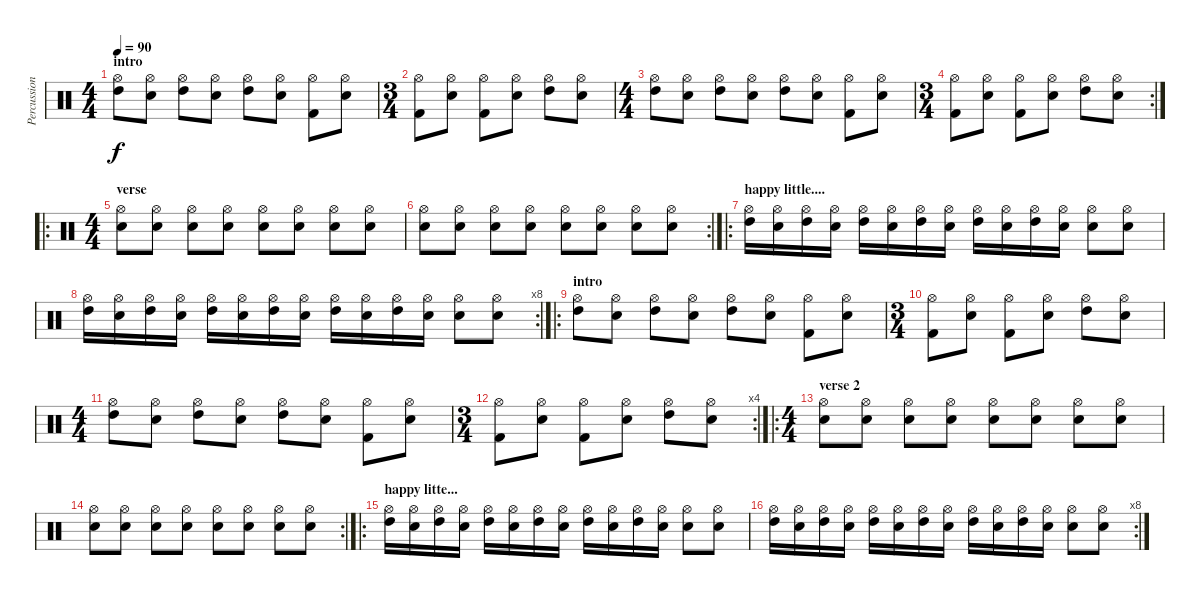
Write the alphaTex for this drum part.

\track ("Percussioni" "Percussion") {instrument percussion}
\staff {score}
\articulation defaults
\ts (4 4)
\section ("" "intro")
\tempo 90
\clef neutral
\ks c
("Hi-Hat (open)" "High Tom (hit)").8{dy f} ("Hi-Hat (open)" "Electric Snare (hit)").8 ("Hi-Hat (open)" "High Tom (hit)").8 ("Hi-Hat (open)" "Electric Snare (hit)").8 ("Hi-Hat (open)" "High Tom (hit)").8 ("Hi-Hat (open)" "Electric Snare (hit)").8 ("Hi-Hat (open)" "Kick (hit) 2").8 ("Hi-Hat (open)" "Electric Snare (hit)").8 |
\ts (3 4)
("Hi-Hat (open)" "Kick (hit) 2").8 ("Hi-Hat (open)" "Electric Snare (hit)").8 ("Hi-Hat (open)" "Kick (hit) 2").8 ("Hi-Hat (open)" "Electric Snare (hit)").8 ("Hi-Hat (open)" "High Tom (hit)").8 ("Hi-Hat (open)" "Electric Snare (hit)").8 |
\ts (4 4)
("Hi-Hat (open)" "High Tom (hit)").8 ("Hi-Hat (open)" "Electric Snare (hit)").8 ("Hi-Hat (open)" "High Tom (hit)").8 ("Hi-Hat (open)" "Electric Snare (hit)").8 ("Hi-Hat (open)" "High Tom (hit)").8 ("Hi-Hat (open)" "Electric Snare (hit)").8 ("Hi-Hat (open)" "Kick (hit) 2").8 ("Hi-Hat (open)" "Electric Snare (hit)").8 |
\rc 2
\ts (3 4)
("Hi-Hat (open)" "Kick (hit) 2").8 ("Hi-Hat (open)" "Electric Snare (hit)").8 ("Hi-Hat (open)" "Kick (hit) 2").8 ("Hi-Hat (open)" "Electric Snare (hit)").8 ("Hi-Hat (open)" "High Tom (hit)").8 ("Hi-Hat (open)" "Electric Snare (hit)").8 |
\ro
\ts (4 4)
\section ("" "verse")
("Hi-Hat (open)" "Electric Snare (hit)").8 ("Hi-Hat (open)" "Electric Snare (hit)").8 ("Hi-Hat (open)" "Electric Snare (hit)").8 ("Hi-Hat (open)" "Electric Snare (hit)").8 ("Hi-Hat (open)" "Electric Snare (hit)").8 ("Hi-Hat (open)" "Electric Snare (hit)").8 ("Hi-Hat (open)" "Electric Snare (hit)").8 ("Hi-Hat (open)" "Electric Snare (hit)").8 |
\rc 2
("Hi-Hat (open)" "Electric Snare (hit)").8 ("Hi-Hat (open)" "Electric Snare (hit)").8 ("Hi-Hat (open)" "Electric Snare (hit)").8 ("Hi-Hat (open)" "Electric Snare (hit)").8 ("Hi-Hat (open)" "Electric Snare (hit)").8 ("Hi-Hat (open)" "Electric Snare (hit)").8 ("Hi-Hat (open)" "Electric Snare (hit)").8 ("Hi-Hat (open)" "Electric Snare (hit)").8 |
\ro
\section ("" "happy little....")
("Hi-Hat (open)" "High Tom (hit)").16 ("Hi-Hat (open)" "Electric Snare (hit)").16 ("Hi-Hat (open)" "High Tom (hit)").16 ("Hi-Hat (open)" "Electric Snare (hit)").16 ("Hi-Hat (open)" "High Tom (hit)").16 ("Hi-Hat (open)" "Electric Snare (hit)").16 ("Hi-Hat (open)" "High Tom (hit)").16 ("Hi-Hat (open)" "Electric Snare (hit)").16 ("Hi-Hat (open)" "High Tom (hit)").16 ("Hi-Hat (open)" "Electric Snare (hit)").16 ("Hi-Hat (open)" "High Tom (hit)").16 ("Hi-Hat (open)" "Electric Snare (hit)").16 ("Hi-Hat (open)" "Electric Snare (hit)").8 ("Hi-Hat (open)" "Electric Snare (hit)").8 |
\rc 8
("Hi-Hat (open)" "High Tom (hit)").16 ("Hi-Hat (open)" "Electric Snare (hit)").16 ("Hi-Hat (open)" "High Tom (hit)").16 ("Hi-Hat (open)" "Electric Snare (hit)").16 ("Hi-Hat (open)" "High Tom (hit)").16 ("Hi-Hat (open)" "Electric Snare (hit)").16 ("Hi-Hat (open)" "High Tom (hit)").16 ("Hi-Hat (open)" "Electric Snare (hit)").16 ("Hi-Hat (open)" "High Tom (hit)").16 ("Hi-Hat (open)" "Electric Snare (hit)").16 ("Hi-Hat (open)" "High Tom (hit)").16 ("Hi-Hat (open)" "Electric Snare (hit)").16 ("Hi-Hat (open)" "Electric Snare (hit)").8 ("Hi-Hat (open)" "Electric Snare (hit)").8 |
\ro
\section ("" "intro")
("Hi-Hat (open)" "High Tom (hit)").8 ("Hi-Hat (open)" "Electric Snare (hit)").8 ("Hi-Hat (open)" "High Tom (hit)").8 ("Hi-Hat (open)" "Electric Snare (hit)").8 ("Hi-Hat (open)" "High Tom (hit)").8 ("Hi-Hat (open)" "Electric Snare (hit)").8 ("Hi-Hat (open)" "Kick (hit) 2").8 ("Hi-Hat (open)" "Electric Snare (hit)").8 |
\ts (3 4)
("Hi-Hat (open)" "Kick (hit) 2").8 ("Hi-Hat (open)" "Electric Snare (hit)").8 ("Hi-Hat (open)" "Kick (hit) 2").8 ("Hi-Hat (open)" "Electric Snare (hit)").8 ("Hi-Hat (open)" "High Tom (hit)").8 ("Hi-Hat (open)" "Electric Snare (hit)").8 |
\ts (4 4)
("Hi-Hat (open)" "High Tom (hit)").8 ("Hi-Hat (open)" "Electric Snare (hit)").8 ("Hi-Hat (open)" "High Tom (hit)").8 ("Hi-Hat (open)" "Electric Snare (hit)").8 ("Hi-Hat (open)" "High Tom (hit)").8 ("Hi-Hat (open)" "Electric Snare (hit)").8 ("Hi-Hat (open)" "Kick (hit) 2").8 ("Hi-Hat (open)" "Electric Snare (hit)").8 |
\rc 4
\ts (3 4)
("Hi-Hat (open)" "Kick (hit) 2").8 ("Hi-Hat (open)" "Electric Snare (hit)").8 ("Hi-Hat (open)" "Kick (hit) 2").8 ("Hi-Hat (open)" "Electric Snare (hit)").8 ("Hi-Hat (open)" "High Tom (hit)").8 ("Hi-Hat (open)" "Electric Snare (hit)").8 |
\ro
\ts (4 4)
\section ("" "verse 2")
("Hi-Hat (open)" "Electric Snare (hit)").8 ("Hi-Hat (open)" "Electric Snare (hit)").8 ("Hi-Hat (open)" "Electric Snare (hit)").8 ("Hi-Hat (open)" "Electric Snare (hit)").8 ("Hi-Hat (open)" "Electric Snare (hit)").8 ("Hi-Hat (open)" "Electric Snare (hit)").8 ("Hi-Hat (open)" "Electric Snare (hit)").8 ("Hi-Hat (open)" "Electric Snare (hit)").8 |
\rc 2
("Hi-Hat (open)" "Electric Snare (hit)").8 ("Hi-Hat (open)" "Electric Snare (hit)").8 ("Hi-Hat (open)" "Electric Snare (hit)").8 ("Hi-Hat (open)" "Electric Snare (hit)").8 ("Hi-Hat (open)" "Electric Snare (hit)").8 ("Hi-Hat (open)" "Electric Snare (hit)").8 ("Hi-Hat (open)" "Electric Snare (hit)").8 ("Hi-Hat (open)" "Electric Snare (hit)").8 |
\ro
\section ("" "happy litte...")
("Hi-Hat (open)" "High Tom (hit)").16 ("Hi-Hat (open)" "Electric Snare (hit)").16 ("Hi-Hat (open)" "High Tom (hit)").16 ("Hi-Hat (open)" "Electric Snare (hit)").16 ("Hi-Hat (open)" "High Tom (hit)").16 ("Hi-Hat (open)" "Electric Snare (hit)").16 ("Hi-Hat (open)" "High Tom (hit)").16 ("Hi-Hat (open)" "Electric Snare (hit)").16 ("Hi-Hat (open)" "High Tom (hit)").16 ("Hi-Hat (open)" "Electric Snare (hit)").16 ("Hi-Hat (open)" "High Tom (hit)").16 ("Hi-Hat (open)" "Electric Snare (hit)").16 ("Hi-Hat (open)" "Electric Snare (hit)").8 ("Hi-Hat (open)" "Electric Snare (hit)").8 |
\rc 8
("Hi-Hat (open)" "High Tom (hit)").16 ("Hi-Hat (open)" "Electric Snare (hit)").16 ("Hi-Hat (open)" "High Tom (hit)").16 ("Hi-Hat (open)" "Electric Snare (hit)").16 ("Hi-Hat (open)" "High Tom (hit)").16 ("Hi-Hat (open)" "Electric Snare (hit)").16 ("Hi-Hat (open)" "High Tom (hit)").16 ("Hi-Hat (open)" "Electric Snare (hit)").16 ("Hi-Hat (open)" "High Tom (hit)").16 ("Hi-Hat (open)" "Electric Snare (hit)").16 ("Hi-Hat (open)" "High Tom (hit)").16 ("Hi-Hat (open)" "Electric Snare (hit)").16 ("Hi-Hat (open)" "Electric Snare (hit)").8 ("Hi-Hat (open)" "Electric Snare (hit)").8
